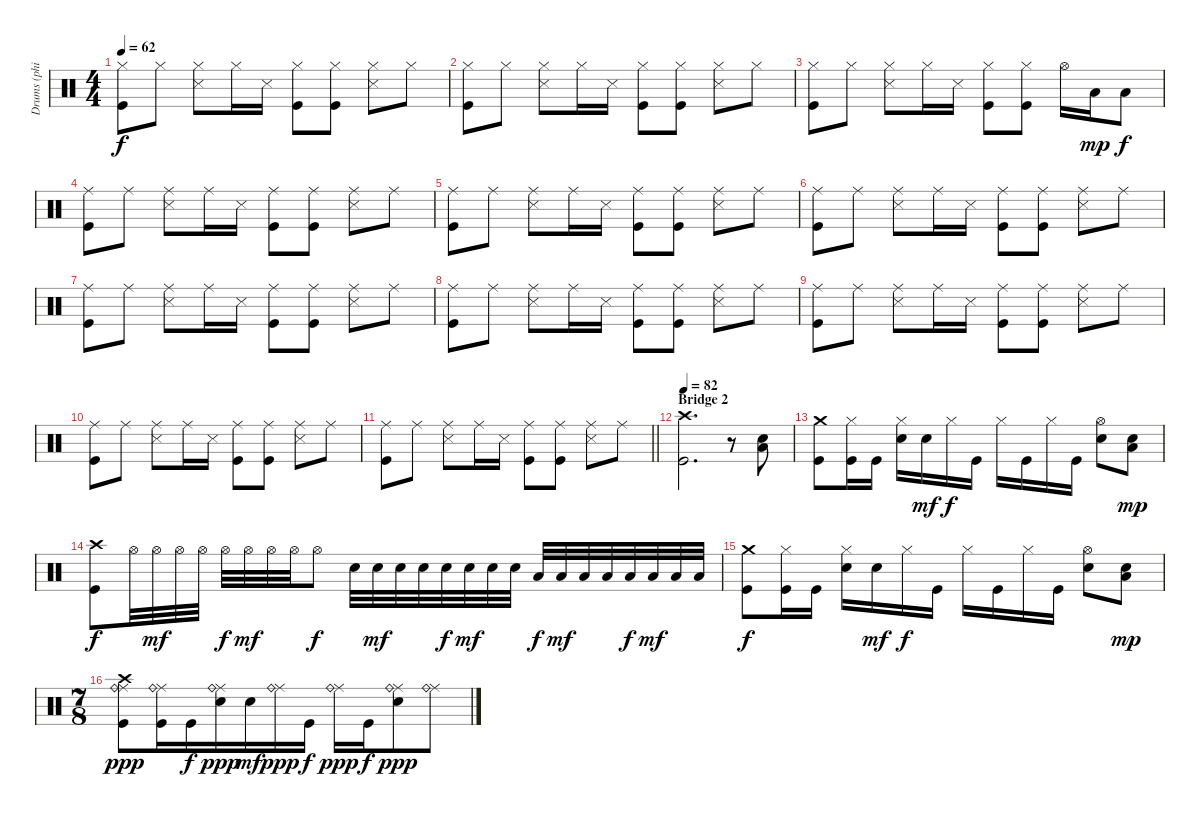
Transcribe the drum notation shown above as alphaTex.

\track ("Drums (phil)" "Drums (phi") {instrument percussion}
\staff {score}
\articulation defaults
\ts (4 4)
\tempo 62
\clef neutral
\ks c
("Hi-Hat (closed)" "Kick (hit)").8{dy f} "Hi-Hat (closed)".8 ("Hi-Hat (closed)" "Snare (side stick) 3").8 "Hi-Hat (closed)".16 "Snare (side stick) 3".16 ("Hi-Hat (closed)" "Kick (hit)").8 ("Hi-Hat (closed)" "Kick (hit)").8 ("Hi-Hat (closed)" "Snare (side stick) 3").8 "Hi-Hat (closed)".8 |
("Hi-Hat (closed)" "Kick (hit)").8 "Hi-Hat (closed)".8 ("Hi-Hat (closed)" "Snare (side stick) 3").8 "Hi-Hat (closed)".16 "Snare (side stick) 3".16 ("Hi-Hat (closed)" "Kick (hit)").8 ("Hi-Hat (closed)" "Kick (hit)").8 ("Hi-Hat (closed)" "Snare (side stick) 3").8 "Hi-Hat (closed)".8 |
("Hi-Hat (closed)" "Kick (hit)").8 "Hi-Hat (closed)".8 ("Hi-Hat (closed)" "Snare (side stick) 3").8 "Hi-Hat (closed)".16 "Snare (side stick) 3".16 ("Hi-Hat (closed)" "Kick (hit)").8 ("Hi-Hat (closed)" "Kick (hit)").8 "Hi-Hat (open)".16 "Low Tom (hit)".16{dy mp} "Low Tom (hit)".8{dy f} |
("Ride (middle)" "Kick (hit)").8 "Ride (middle)".8 ("Ride (middle)" "Snare (side stick) 3").8 "Ride (middle)".16 "Snare (side stick) 3".16 ("Ride (middle)" "Kick (hit)").8 ("Ride (middle)" "Kick (hit)").8 ("Ride (middle)" "Snare (side stick) 3").8 "Ride (middle)".8 |
("Ride (middle)" "Kick (hit)").8 "Ride (middle)".8 ("Ride (middle)" "Snare (side stick) 3").8 "Ride (middle)".16 "Snare (side stick) 3".16 ("Ride (middle)" "Kick (hit)").8 ("Ride (middle)" "Kick (hit)").8 ("Ride (middle)" "Snare (side stick) 3").8 "Ride (middle)".8 |
("Ride (middle)" "Kick (hit)").8 "Ride (middle)".8 ("Ride (middle)" "Snare (side stick) 3").8 "Ride (middle)".16 "Snare (side stick) 3".16 ("Ride (middle)" "Kick (hit)").8 ("Ride (middle)" "Kick (hit)").8 ("Ride (middle)" "Snare (side stick) 3").8 "Ride (middle)".8 |
("Ride (middle)" "Kick (hit)").8 "Ride (middle)".8 ("Ride (middle)" "Snare (side stick) 3").8 "Ride (middle)".16 "Snare (side stick) 3".16 ("Ride (middle)" "Kick (hit)").8 ("Ride (middle)" "Kick (hit)").8 ("Ride (middle)" "Snare (side stick) 3").8 "Ride (middle)".8 |
("Ride (middle)" "Kick (hit)").8 "Ride (middle)".8 ("Ride (middle)" "Snare (side stick) 3").8 "Ride (middle)".16 "Snare (side stick) 3".16 ("Ride (middle)" "Kick (hit)").8 ("Ride (middle)" "Kick (hit)").8 ("Ride (middle)" "Snare (side stick) 3").8 "Ride (middle)".8 |
("Ride (middle)" "Kick (hit)").8 "Ride (middle)".8 ("Ride (middle)" "Snare (side stick) 3").8 "Ride (middle)".16 "Snare (side stick) 3".16 ("Ride (middle)" "Kick (hit)").8 ("Ride (middle)" "Kick (hit)").8 ("Ride (middle)" "Snare (side stick) 3").8 "Ride (middle)".8 |
("Ride (middle)" "Kick (hit)").8 "Ride (middle)".8 ("Ride (middle)" "Snare (side stick) 3").8 "Ride (middle)".16 "Snare (side stick) 3".16 ("Ride (middle)" "Kick (hit)").8 ("Ride (middle)" "Kick (hit)").8 ("Ride (middle)" "Snare (side stick) 3").8 "Ride (middle)".8 |
\barLineRight lightlight
("Ride (middle)" "Kick (hit)").8 "Ride (middle)".8 ("Ride (middle)" "Snare (side stick) 3").8 "Ride (middle)".16 "Snare (side stick) 3".16 ("Ride (middle)" "Kick (hit)").8 ("Ride (middle)" "Kick (hit)").8 ("Ride (middle)" "Snare (side stick) 3").8 "Ride (middle)".8 |
\section ("" "Bridge 2")
\tempo 82
("Crash high (hit)" "Kick (hit)").2{d} r.8 ("Snare (hit) 2" "Low Floor Tom (hit)").8 |
("Crash medium (hit)" "Kick (hit)").8 ("Hi-Hat (closed)" "Kick (hit)").16 "Kick (hit)".16 ("Hi-Hat (closed)" "Snare (hit) 2").16 "Snare (hit) 2".16{dy mf} "Hi-Hat (closed)".16{dy f} "Kick (hit)".16 "Hi-Hat (closed)".16 "Kick (hit)".16 "Hi-Hat (closed)".16 "Kick (hit)".16 ("Hi-Hat (open)" "Snare (hit) 2").8 ("Snare (hit) 2" "Low Floor Tom (hit)").8{dy mp} |
("Crash high (hit)" "Kick (hit)").8{dy f} "Hi-Hat (open)".32 "Hi-Hat (open)".32{dy mf} "Hi-Hat (open)".32 "Hi-Hat (open)".32 "Hi-Hat (open)".32{dy f} "Hi-Hat (open)".32{dy mf} "Hi-Hat (open)".32 "Hi-Hat (open)".32 "Hi-Hat (open)".8{dy f} "Snare (hit) 2".32 "Snare (hit) 2".32{dy mf} "Snare (hit) 2".32 "Snare (hit) 2".32 "Snare (hit) 2".32{dy f} "Snare (hit) 2".32{dy mf} "Snare (hit) 2".32 "Snare (hit) 2".32 "Low Tom (hit)".32{dy f} "Low Tom (hit)".32{dy mf} "Low Tom (hit)".32 "Low Tom (hit)".32 "Low Tom (hit)".32{dy f} "Low Tom (hit)".32{dy mf} "Low Tom (hit)".32 "Low Tom (hit)".32 |
("Crash medium (hit)" "Kick (hit)").8{dy f} ("Hi-Hat (closed)" "Kick (hit)").16 "Kick (hit)".16 ("Hi-Hat (closed)" "Snare (hit) 2").16 "Snare (hit) 2".16{dy mf} "Hi-Hat (closed)".16{dy f} "Kick (hit)".16 "Hi-Hat (closed)".16 "Kick (hit)".16 "Hi-Hat (closed)".16 "Kick (hit)".16 ("Hi-Hat (open)" "Snare (hit) 2").8 ("Snare (hit) 2" "Low Floor Tom (hit)").8{dy mp} |
\ts (7 8)
("Ride (middle)" "Ride (bell)" "Crash high (hit)" "Kick (hit)").8{dy ppp} ("Ride (middle)" "Ride (bell)" "Kick (hit)").16 "Kick (hit)".16{dy f} ("Ride (middle)" "Ride (bell)" "Snare (hit) 2").16{dy ppp} "Snare (hit) 2".16{dy mf} ("Ride (middle)" "Ride (bell)").16{dy ppp} "Kick (hit)".16{dy f} ("Ride (middle)" "Ride (bell)").16{dy ppp} "Kick (hit)".16{dy f} ("Ride (middle)" "Ride (bell)" "Snare (hit) 2").8{dy ppp} ("Ride (middle)" "Ride (bell)").8
